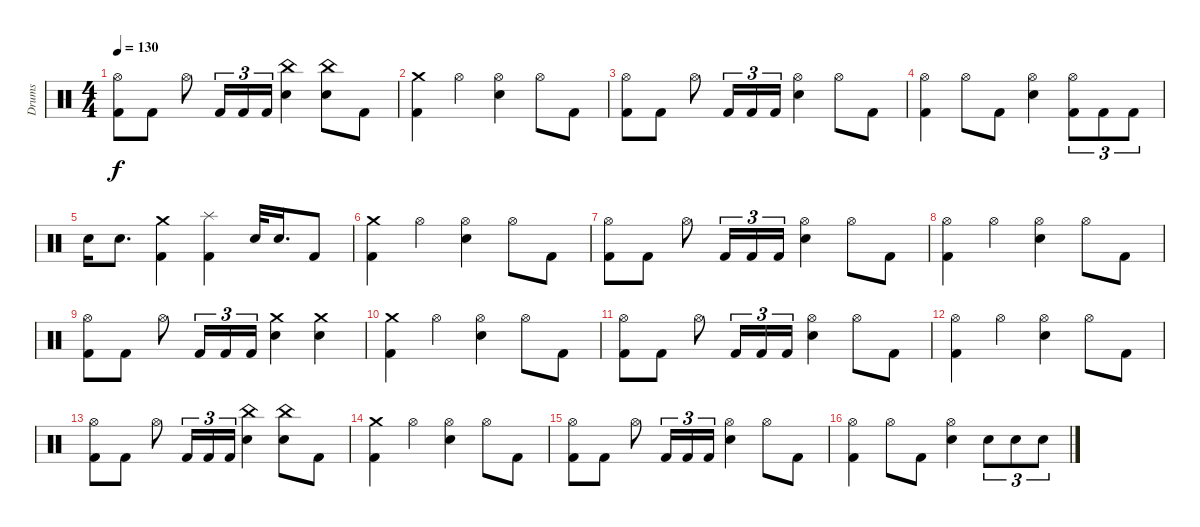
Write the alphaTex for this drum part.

\track ("Drums" "Drums") {instrument percussion}
\staff {score}
\articulation defaults
\ts (4 4)
\tempo 130
\clef neutral
\ks c
("Kick (hit) 2" "Hi-Hat (open)").8{dy f} "Kick (hit) 2".8 "Hi-Hat (open)".8 "Kick (hit) 2".16{tu (3 2)} "Kick (hit) 2".16{tu (3 2)} "Kick (hit) 2".16{tu (3 2)} ("China (hit)" "Electric Snare (hit)").4 ("China (hit)" "Electric Snare (hit)").8 "Kick (hit) 2".8 |
("Kick (hit) 2" "Crash medium (hit)").4 "Hi-Hat (open)".4 ("Electric Snare (hit)" "Hi-Hat (open)").4 "Hi-Hat (open)".8 "Kick (hit) 2".8 |
("Kick (hit) 2" "Hi-Hat (open)").8 "Kick (hit) 2".8 "Hi-Hat (open)".8 "Kick (hit) 2".16{tu (3 2)} "Kick (hit) 2".16{tu (3 2)} "Kick (hit) 2".16{tu (3 2)} ("Electric Snare (hit)" "Hi-Hat (open)").4 "Hi-Hat (open)".8 "Kick (hit) 2".8 |
("Kick (hit) 2" "Hi-Hat (open)").4 "Hi-Hat (open)".8 "Kick (hit) 2".8 ("Electric Snare (hit)" "Hi-Hat (open)").4 ("Kick (hit) 2" "Hi-Hat (open)").8{tu (3 2)} "Kick (hit) 2".8{tu (3 2)} "Kick (hit) 2".8{tu (3 2)} |
"Electric Snare (hit)".16 "Electric Snare (hit)".8{d} ("Crash medium (hit)" "Kick (hit) 2").4 ("Splash (hit)" "Kick (hit) 2").4 "Electric Snare (hit)".32 "Electric Snare (hit)".16{d} "Kick (hit) 2".8 |
("Kick (hit) 2" "Crash medium (hit)").4 "Hi-Hat (open)".4 ("Electric Snare (hit)" "Hi-Hat (open)").4 "Hi-Hat (open)".8 "Kick (hit) 2".8 |
("Kick (hit) 2" "Hi-Hat (open)").8 "Kick (hit) 2".8 "Hi-Hat (open)".8 "Kick (hit) 2".16{tu (3 2)} "Kick (hit) 2".16{tu (3 2)} "Kick (hit) 2".16{tu (3 2)} ("Electric Snare (hit)" "Hi-Hat (open)").4 "Hi-Hat (open)".8 "Kick (hit) 2".8 |
("Hi-Hat (open)" "Kick (hit) 2").4 "Hi-Hat (open)".4 ("Electric Snare (hit)" "Hi-Hat (open)").4 "Hi-Hat (open)".8 "Kick (hit) 2".8 |
("Kick (hit) 2" "Hi-Hat (open)").8 "Kick (hit) 2".8 "Hi-Hat (open)".8 "Kick (hit) 2".16{tu (3 2)} "Kick (hit) 2".16{tu (3 2)} "Kick (hit) 2".16{tu (3 2)} ("Crash medium (hit)" "Electric Snare (hit)").4 ("Crash medium (hit)" "Electric Snare (hit)").4 |
("Kick (hit) 2" "Crash medium (hit)").4 "Hi-Hat (open)".4 ("Electric Snare (hit)" "Hi-Hat (open)").4 "Hi-Hat (open)".8 "Kick (hit) 2".8 |
("Kick (hit) 2" "Hi-Hat (open)").8 "Kick (hit) 2".8 "Hi-Hat (open)".8 "Kick (hit) 2".16{tu (3 2)} "Kick (hit) 2".16{tu (3 2)} "Kick (hit) 2".16{tu (3 2)} ("Electric Snare (hit)" "Hi-Hat (open)").4 "Hi-Hat (open)".8 "Kick (hit) 2".8 |
("Hi-Hat (open)" "Kick (hit) 2").4 "Hi-Hat (open)".4 ("Electric Snare (hit)" "Hi-Hat (open)").4 "Hi-Hat (open)".8 "Kick (hit) 2".8 |
("Kick (hit) 2" "Hi-Hat (open)").8 "Kick (hit) 2".8 "Hi-Hat (open)".8 "Kick (hit) 2".16{tu (3 2)} "Kick (hit) 2".16{tu (3 2)} "Kick (hit) 2".16{tu (3 2)} ("China (hit)" "Electric Snare (hit)").4 ("China (hit)" "Electric Snare (hit)").8 "Kick (hit) 2".8 |
("Kick (hit) 2" "Crash medium (hit)").4 "Hi-Hat (open)".4 ("Electric Snare (hit)" "Hi-Hat (open)").4 "Hi-Hat (open)".8 "Kick (hit) 2".8 |
("Kick (hit) 2" "Hi-Hat (open)").8 "Kick (hit) 2".8 "Hi-Hat (open)".8 "Kick (hit) 2".16{tu (3 2)} "Kick (hit) 2".16{tu (3 2)} "Kick (hit) 2".16{tu (3 2)} ("Electric Snare (hit)" "Hi-Hat (open)").4 "Hi-Hat (open)".8 "Kick (hit) 2".8 |
("Kick (hit) 2" "Hi-Hat (open)").4 "Hi-Hat (open)".8 "Kick (hit) 2".8 ("Electric Snare (hit)" "Hi-Hat (open)").4 "Electric Snare (hit)".8{tu (3 2)} "Electric Snare (hit)".8{tu (3 2)} "Electric Snare (hit)".8{tu (3 2)}
